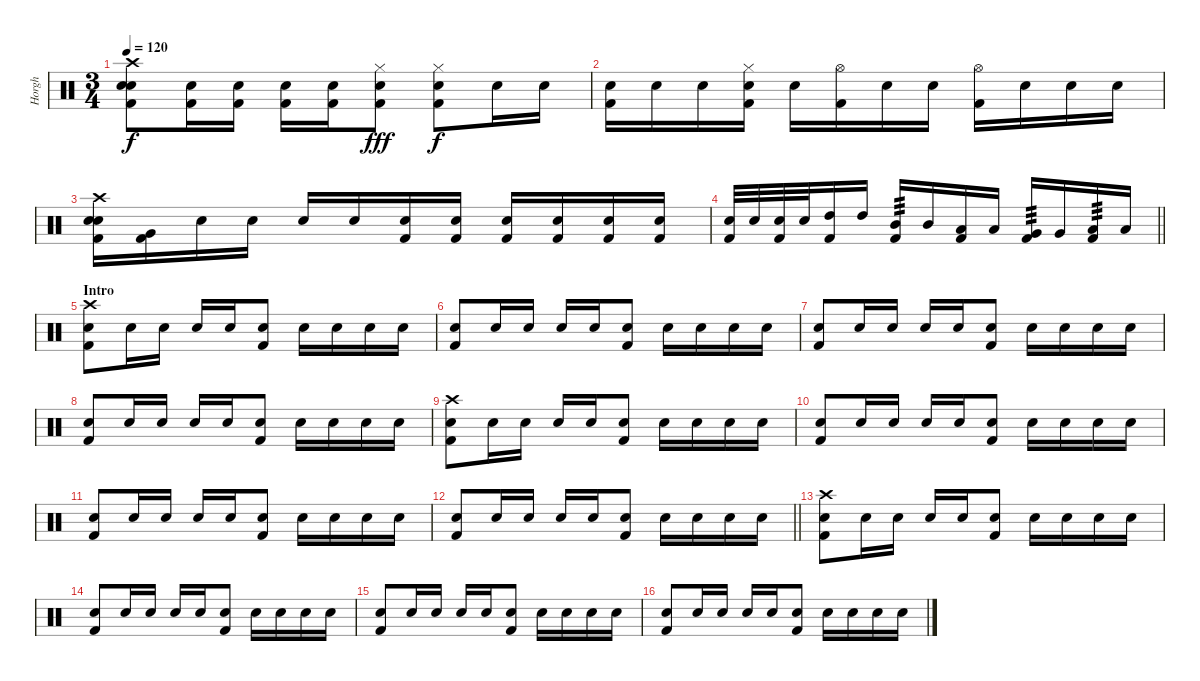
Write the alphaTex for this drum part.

\track ("Horgh" "Horgh") {instrument percussion}
\staff {score}
\articulation defaults
\ts (3 4)
\tempo 120
\clef neutral
\ks c
("Crash high (hit)" "Snare (hit) 2" "Snare (hit) 2" "Kick (hit) 2").8{dy f} ("Snare (hit) 2" "Kick (hit) 2").16 ("Snare (hit) 2" "Kick (hit) 2").16 ("Snare (hit) 2" "Kick (hit) 2").16 ("Snare (hit) 2" "Kick (hit) 2").16 ("Hi-Hat (closed)" "Snare (hit) 2" "Kick (hit) 2").8{dy fff} ("Hi-Hat (closed)" "Snare (hit) 2" "Kick (hit) 2").8{dy f} "Snare (hit) 2".16 "Snare (hit) 2".16 |
("Snare (hit) 2" "Kick (hit) 2").16 "Snare (hit) 2".16 "Snare (hit) 2".16 ("Hi-Hat (closed)" "Snare (hit) 2" "Kick (hit) 2").16 "Snare (hit) 2".16 ("Hi-Hat (open)" "Kick (hit) 2").16 "Snare (hit) 2".16 "Snare (hit) 2".16 ("Hi-Hat (open)" "Kick (hit) 2").16 "Snare (hit) 2".16 "Snare (hit) 2".16 "Snare (hit) 2".16 |
("Crash high (hit)" "Snare (hit) 2" "Snare (hit) 2" "Kick (hit) 2").16 ("Very Low Tom (hit)" "Kick (hit) 2").16 "Snare (hit) 2".16 "Snare (hit) 2".16 "Snare (hit) 2".16 "Snare (hit) 2".16 ("Snare (hit) 2" "Kick (hit) 2").16 ("Snare (hit) 2" "Kick (hit) 2").16 ("Snare (hit) 2" "Kick (hit) 2").16 ("Snare (hit) 2" "Kick (hit) 2").16 ("Snare (hit) 2" "Kick (hit) 2").16 ("Snare (hit) 2" "Kick (hit) 2").16 |
\barLineRight lightlight
("Snare (hit) 2" "Kick (hit) 2").32 "Snare (hit) 2".32 ("Snare (hit) 2" "Kick (hit) 2").32 "Snare (hit) 2".32 ("High Tom (hit)" "Kick (hit) 2").16 "High Tom (hit)".16 ("Mid Tom (hit)" "Kick (hit) 2").16{tp 3} "Mid Tom (hit)".16 ("Low Tom (hit)" "Kick (hit) 2").16 "Low Tom (hit)".16 ("Very Low Tom (hit)" "Kick (hit) 2").16{tp 3} "Very Low Tom (hit)".16 ("Low Floor Tom (hit)" "Kick (hit) 2").16{tp 3} "Low Floor Tom (hit)".16 |
\section ("" "Intro")
("Crash high (hit)" "Snare (hit) 2" "Kick (hit) 2").8 "Snare (hit) 2".16 "Snare (hit) 2".16 "Snare (hit) 2".16 "Snare (hit) 2".16 ("Snare (hit) 2" "Kick (hit) 2").8 "Snare (hit) 2".16 "Snare (hit) 2".16 "Snare (hit) 2".16 "Snare (hit) 2".16 |
("Snare (hit) 2" "Kick (hit) 2").8 "Snare (hit) 2".16 "Snare (hit) 2".16 "Snare (hit) 2".16 "Snare (hit) 2".16 ("Snare (hit) 2" "Kick (hit) 2").8 "Snare (hit) 2".16 "Snare (hit) 2".16 "Snare (hit) 2".16 "Snare (hit) 2".16 |
("Snare (hit) 2" "Kick (hit) 2").8 "Snare (hit) 2".16 "Snare (hit) 2".16 "Snare (hit) 2".16 "Snare (hit) 2".16 ("Snare (hit) 2" "Kick (hit) 2").8 "Snare (hit) 2".16 "Snare (hit) 2".16 "Snare (hit) 2".16 "Snare (hit) 2".16 |
("Snare (hit) 2" "Kick (hit) 2").8 "Snare (hit) 2".16 "Snare (hit) 2".16 "Snare (hit) 2".16 "Snare (hit) 2".16 ("Snare (hit) 2" "Kick (hit) 2").8 "Snare (hit) 2".16 "Snare (hit) 2".16 "Snare (hit) 2".16 "Snare (hit) 2".16 |
("Crash high (hit)" "Snare (hit) 2" "Kick (hit) 2").8 "Snare (hit) 2".16 "Snare (hit) 2".16 "Snare (hit) 2".16 "Snare (hit) 2".16 ("Snare (hit) 2" "Kick (hit) 2").8 "Snare (hit) 2".16 "Snare (hit) 2".16 "Snare (hit) 2".16 "Snare (hit) 2".16 |
("Snare (hit) 2" "Kick (hit) 2").8 "Snare (hit) 2".16 "Snare (hit) 2".16 "Snare (hit) 2".16 "Snare (hit) 2".16 ("Snare (hit) 2" "Kick (hit) 2").8 "Snare (hit) 2".16 "Snare (hit) 2".16 "Snare (hit) 2".16 "Snare (hit) 2".16 |
("Snare (hit) 2" "Kick (hit) 2").8 "Snare (hit) 2".16 "Snare (hit) 2".16 "Snare (hit) 2".16 "Snare (hit) 2".16 ("Snare (hit) 2" "Kick (hit) 2").8 "Snare (hit) 2".16 "Snare (hit) 2".16 "Snare (hit) 2".16 "Snare (hit) 2".16 |
\barLineRight lightlight
("Snare (hit) 2" "Kick (hit) 2").8 "Snare (hit) 2".16 "Snare (hit) 2".16 "Snare (hit) 2".16 "Snare (hit) 2".16 ("Snare (hit) 2" "Kick (hit) 2").8 "Snare (hit) 2".16 "Snare (hit) 2".16 "Snare (hit) 2".16 "Snare (hit) 2".16 |
("Crash high (hit)" "Snare (hit) 2" "Kick (hit) 2").8 "Snare (hit) 2".16 "Snare (hit) 2".16 "Snare (hit) 2".16 "Snare (hit) 2".16 ("Snare (hit) 2" "Kick (hit) 2").8 "Snare (hit) 2".16 "Snare (hit) 2".16 "Snare (hit) 2".16 "Snare (hit) 2".16 |
("Snare (hit) 2" "Kick (hit) 2").8 "Snare (hit) 2".16 "Snare (hit) 2".16 "Snare (hit) 2".16 "Snare (hit) 2".16 ("Snare (hit) 2" "Kick (hit) 2").8 "Snare (hit) 2".16 "Snare (hit) 2".16 "Snare (hit) 2".16 "Snare (hit) 2".16 |
("Snare (hit) 2" "Kick (hit) 2").8 "Snare (hit) 2".16 "Snare (hit) 2".16 "Snare (hit) 2".16 "Snare (hit) 2".16 ("Snare (hit) 2" "Kick (hit) 2").8 "Snare (hit) 2".16 "Snare (hit) 2".16 "Snare (hit) 2".16 "Snare (hit) 2".16 |
("Snare (hit) 2" "Kick (hit) 2").8 "Snare (hit) 2".16 "Snare (hit) 2".16 "Snare (hit) 2".16 "Snare (hit) 2".16 ("Snare (hit) 2" "Kick (hit) 2").8 "Snare (hit) 2".16 "Snare (hit) 2".16 "Snare (hit) 2".16 "Snare (hit) 2".16
